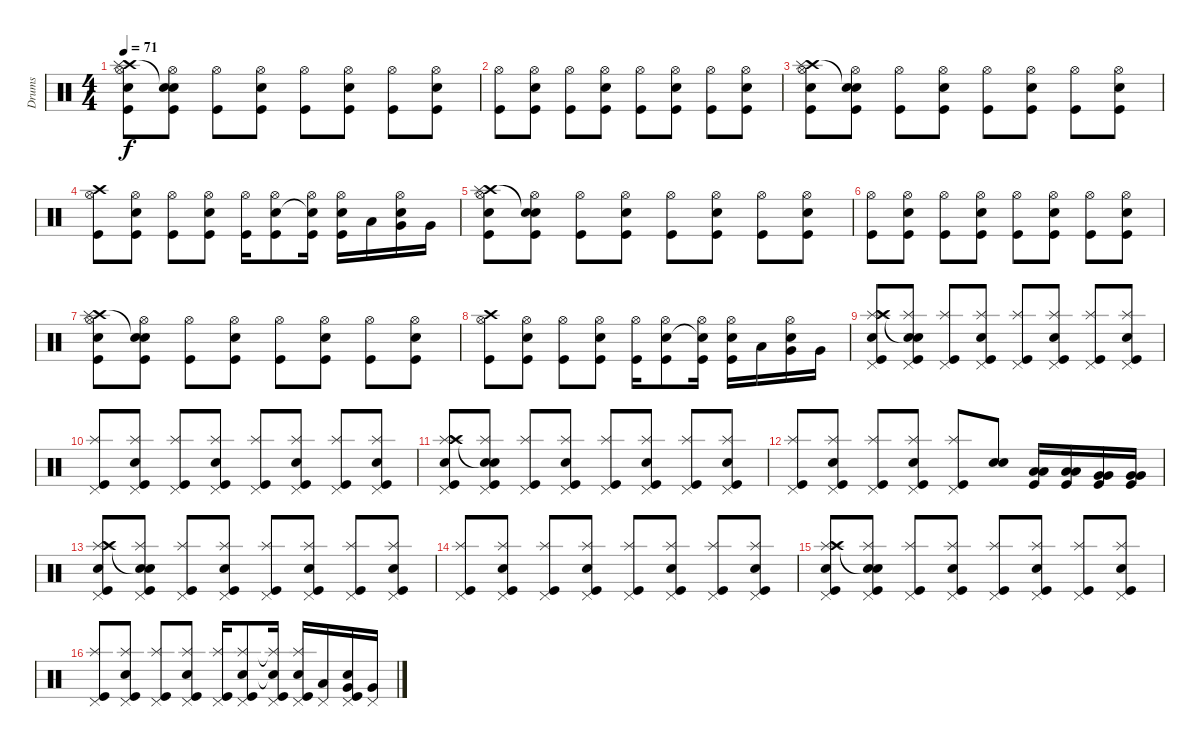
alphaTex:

\track ("Drums" "Drums") {instrument percussion}
\staff {score}
\articulation defaults
\ts (4 4)
\tempo 71
\clef neutral
\ks c
("Snare (hit) 2" "Hi-Hat (open)" "Kick (hit)" "Crash high (hit)" "Splash (hit)").8{dy f} ("Snare (hit) 2" "Hi-Hat (open)" "Kick (hit)" "Snare (hit)"{t}).8 ("Hi-Hat (open)" "Kick (hit)").8 ("Electric Snare (hit)" "Hi-Hat (open)" "Kick (hit)").8 ("Hi-Hat (open)" "Kick (hit)").8 ("Snare (hit) 2" "Hi-Hat (open)" "Kick (hit)").8 ("Hi-Hat (open)" "Kick (hit)").8 ("Electric Snare (hit)" "Hi-Hat (open)" "Kick (hit)").8 |
("Hi-Hat (open)" "Kick (hit)").8 ("Snare (hit) 2" "Hi-Hat (open)" "Kick (hit)").8 ("Hi-Hat (open)" "Kick (hit)").8 ("Electric Snare (hit)" "Hi-Hat (open)" "Kick (hit)").8 ("Hi-Hat (open)" "Kick (hit)").8 ("Snare (hit) 2" "Hi-Hat (open)" "Kick (hit)").8 ("Hi-Hat (open)" "Kick (hit)").8 ("Electric Snare (hit)" "Hi-Hat (open)" "Kick (hit)").8 |
("Snare (hit) 2" "Hi-Hat (open)" "Kick (hit)" "Crash high (hit)" "Splash (hit)").8 ("Snare (hit) 2" "Hi-Hat (open)" "Kick (hit)" "Snare (hit)"{t}).8 ("Hi-Hat (open)" "Kick (hit)").8 ("Electric Snare (hit)" "Hi-Hat (open)" "Kick (hit)").8 ("Hi-Hat (open)" "Kick (hit)").8 ("Snare (hit) 2" "Hi-Hat (open)" "Kick (hit)").8 ("Hi-Hat (open)" "Kick (hit)").8 ("Electric Snare (hit)" "Hi-Hat (open)" "Kick (hit)").8 |
("Hi-Hat (open)" "Kick (hit)" "Crash high (hit)").8 ("Snare (hit) 2" "Hi-Hat (open)" "Kick (hit)").8 ("Hi-Hat (open)" "Kick (hit)").8 ("Electric Snare (hit)" "Hi-Hat (open)" "Kick (hit)").8 ("Hi-Hat (open)" "Kick (hit)").16 ("Snare (hit) 2" "Hi-Hat (open)" "Kick (hit)").8 ("Snare (hit) 2"{t} "Hi-Hat (open)" "Kick (hit)").16 ("Electric Snare (hit)" "Hi-Hat (open)" "Kick (hit)").16 "Low Floor Tom (hit)".16 ("Electric Snare (hit)" "Hi-Hat (open)" "Very Low Tom (hit)").16 "Very Low Tom (hit)".16 |
("Snare (hit) 2" "Hi-Hat (open)" "Kick (hit)" "Crash high (hit)" "Splash (hit)").8 ("Snare (hit) 2" "Hi-Hat (open)" "Kick (hit)" "Snare (hit)"{t}).8 ("Hi-Hat (open)" "Kick (hit)").8 ("Electric Snare (hit)" "Hi-Hat (open)" "Kick (hit)").8 ("Hi-Hat (open)" "Kick (hit)").8 ("Snare (hit) 2" "Hi-Hat (open)" "Kick (hit)").8 ("Hi-Hat (open)" "Kick (hit)").8 ("Electric Snare (hit)" "Hi-Hat (open)" "Kick (hit)").8 |
("Hi-Hat (open)" "Kick (hit)").8 ("Snare (hit) 2" "Hi-Hat (open)" "Kick (hit)").8 ("Hi-Hat (open)" "Kick (hit)").8 ("Electric Snare (hit)" "Hi-Hat (open)" "Kick (hit)").8 ("Hi-Hat (open)" "Kick (hit)").8 ("Snare (hit) 2" "Hi-Hat (open)" "Kick (hit)").8 ("Hi-Hat (open)" "Kick (hit)").8 ("Electric Snare (hit)" "Hi-Hat (open)" "Kick (hit)").8 |
("Snare (hit) 2" "Hi-Hat (open)" "Kick (hit)" "Crash high (hit)" "Splash (hit)").8 ("Snare (hit) 2" "Hi-Hat (open)" "Kick (hit)" "Snare (hit)"{t}).8 ("Hi-Hat (open)" "Kick (hit)").8 ("Electric Snare (hit)" "Hi-Hat (open)" "Kick (hit)").8 ("Hi-Hat (open)" "Kick (hit)").8 ("Snare (hit) 2" "Hi-Hat (open)" "Kick (hit)").8 ("Hi-Hat (open)" "Kick (hit)").8 ("Electric Snare (hit)" "Hi-Hat (open)" "Kick (hit)").8 |
("Hi-Hat (open)" "Kick (hit)" "Crash high (hit)").8 ("Snare (hit) 2" "Hi-Hat (open)" "Kick (hit)").8 ("Hi-Hat (open)" "Kick (hit)").8 ("Electric Snare (hit)" "Hi-Hat (open)" "Kick (hit)").8 ("Hi-Hat (open)" "Kick (hit)").16 ("Snare (hit) 2" "Hi-Hat (open)" "Kick (hit)").8 ("Snare (hit) 2"{t} "Hi-Hat (open)" "Kick (hit)").16 ("Electric Snare (hit)" "Hi-Hat (open)" "Kick (hit)").16 "Low Floor Tom (hit)".16 ("Electric Snare (hit)" "Hi-Hat (open)" "Very Low Tom (hit)").16 "Very Low Tom (hit)".16 |
("Snare (hit) 2" "Splash (hit)" "Kick (hit)" "Pedal Hi-Hat (hit)" "Crash high (hit)" "Splash (hit)").8 ("Snare (hit) 2" "Splash (hit)" "Kick (hit)" "Pedal Hi-Hat (hit)" "Snare (hit)"{t}).8 ("Splash (hit)" "Kick (hit)" "Pedal Hi-Hat (hit)").8 ("Electric Snare (hit)" "Splash (hit)" "Kick (hit)" "Pedal Hi-Hat (hit)").8 ("Splash (hit)" "Kick (hit)" "Pedal Hi-Hat (hit)").8 ("Snare (hit) 2" "Splash (hit)" "Kick (hit)" "Pedal Hi-Hat (hit)").8 ("Splash (hit)" "Kick (hit)" "Pedal Hi-Hat (hit)").8 ("Electric Snare (hit)" "Splash (hit)" "Kick (hit)" "Pedal Hi-Hat (hit)").8 |
("Splash (hit)" "Kick (hit)" "Pedal Hi-Hat (hit)").8 ("Snare (hit) 2" "Splash (hit)" "Kick (hit)" "Pedal Hi-Hat (hit)").8 ("Splash (hit)" "Kick (hit)" "Pedal Hi-Hat (hit)").8 ("Electric Snare (hit)" "Splash (hit)" "Kick (hit)" "Pedal Hi-Hat (hit)").8 ("Splash (hit)" "Kick (hit)" "Pedal Hi-Hat (hit)").8 ("Snare (hit) 2" "Splash (hit)" "Kick (hit)" "Pedal Hi-Hat (hit)").8 ("Splash (hit)" "Kick (hit)" "Pedal Hi-Hat (hit)").8 ("Electric Snare (hit)" "Splash (hit)" "Kick (hit)" "Pedal Hi-Hat (hit)").8 |
("Snare (hit) 2" "Splash (hit)" "Kick (hit)" "Pedal Hi-Hat (hit)" "Crash high (hit)" "Splash (hit)").8 ("Snare (hit) 2" "Splash (hit)" "Kick (hit)" "Pedal Hi-Hat (hit)" "Snare (hit)"{t}).8 ("Splash (hit)" "Kick (hit)" "Pedal Hi-Hat (hit)").8 ("Electric Snare (hit)" "Splash (hit)" "Kick (hit)" "Pedal Hi-Hat (hit)").8 ("Splash (hit)" "Kick (hit)" "Pedal Hi-Hat (hit)").8 ("Snare (hit) 2" "Splash (hit)" "Kick (hit)" "Pedal Hi-Hat (hit)").8 ("Splash (hit)" "Kick (hit)" "Pedal Hi-Hat (hit)").8 ("Electric Snare (hit)" "Splash (hit)" "Kick (hit)" "Pedal Hi-Hat (hit)").8 |
("Splash (hit)" "Kick (hit)" "Pedal Hi-Hat (hit)").8 ("Snare (hit) 2" "Splash (hit)" "Kick (hit)" "Pedal Hi-Hat (hit)").8 ("Splash (hit)" "Kick (hit)" "Pedal Hi-Hat (hit)").8 ("Electric Snare (hit)" "Splash (hit)" "Kick (hit)" "Pedal Hi-Hat (hit)").8 ("Splash (hit)" "Kick (hit)" "Pedal Hi-Hat (hit)").8 ("Snare (hit) 2" "Snare (hit) 2").8 ("Low Floor Tom (hit)" "Low Floor Tom (hit)" "Kick (hit)").16 ("Low Floor Tom (hit)" "Low Floor Tom (hit)" "Kick (hit)").16 ("Very Low Tom (hit)" "Very Low Tom (hit)" "Kick (hit)").16 ("Very Low Tom (hit)" "Very Low Tom (hit)" "Kick (hit)").16 |
("Snare (hit) 2" "Splash (hit)" "Kick (hit)" "Pedal Hi-Hat (hit)" "Crash high (hit)" "Splash (hit)").8 ("Snare (hit) 2" "Splash (hit)" "Kick (hit)" "Pedal Hi-Hat (hit)" "Snare (hit)"{t}).8 ("Splash (hit)" "Kick (hit)" "Pedal Hi-Hat (hit)").8 ("Electric Snare (hit)" "Splash (hit)" "Kick (hit)" "Pedal Hi-Hat (hit)").8 ("Splash (hit)" "Kick (hit)" "Pedal Hi-Hat (hit)").8 ("Snare (hit) 2" "Splash (hit)" "Kick (hit)" "Pedal Hi-Hat (hit)").8 ("Splash (hit)" "Kick (hit)" "Pedal Hi-Hat (hit)").8 ("Electric Snare (hit)" "Splash (hit)" "Kick (hit)" "Pedal Hi-Hat (hit)").8 |
("Splash (hit)" "Kick (hit)" "Pedal Hi-Hat (hit)").8 ("Snare (hit) 2" "Splash (hit)" "Kick (hit)" "Pedal Hi-Hat (hit)").8 ("Splash (hit)" "Kick (hit)" "Pedal Hi-Hat (hit)").8 ("Electric Snare (hit)" "Splash (hit)" "Kick (hit)" "Pedal Hi-Hat (hit)").8 ("Splash (hit)" "Kick (hit)" "Pedal Hi-Hat (hit)").8 ("Snare (hit) 2" "Splash (hit)" "Kick (hit)" "Pedal Hi-Hat (hit)").8 ("Splash (hit)" "Kick (hit)" "Pedal Hi-Hat (hit)").8 ("Electric Snare (hit)" "Splash (hit)" "Kick (hit)" "Pedal Hi-Hat (hit)").8 |
("Snare (hit) 2" "Splash (hit)" "Kick (hit)" "Pedal Hi-Hat (hit)" "Crash high (hit)" "Splash (hit)").8 ("Snare (hit) 2" "Splash (hit)" "Kick (hit)" "Pedal Hi-Hat (hit)" "Snare (hit)"{t}).8 ("Splash (hit)" "Kick (hit)" "Pedal Hi-Hat (hit)").8 ("Electric Snare (hit)" "Splash (hit)" "Kick (hit)" "Pedal Hi-Hat (hit)").8 ("Splash (hit)" "Kick (hit)" "Pedal Hi-Hat (hit)").8 ("Snare (hit) 2" "Splash (hit)" "Kick (hit)" "Pedal Hi-Hat (hit)").8 ("Splash (hit)" "Kick (hit)" "Pedal Hi-Hat (hit)").8 ("Electric Snare (hit)" "Splash (hit)" "Kick (hit)" "Pedal Hi-Hat (hit)").8 |
("Splash (hit)" "Kick (hit)" "Pedal Hi-Hat (hit)").8 ("Snare (hit) 2" "Splash (hit)" "Kick (hit)" "Pedal Hi-Hat (hit)").8 ("Splash (hit)" "Kick (hit)" "Pedal Hi-Hat (hit)").8 ("Electric Snare (hit)" "Splash (hit)" "Kick (hit)" "Pedal Hi-Hat (hit)").8 ("Splash (hit)" "Kick (hit)" "Pedal Hi-Hat (hit)").16 ("Snare (hit) 2" "Splash (hit)" "Kick (hit)" "Pedal Hi-Hat (hit)").8 ("Snare (hit) 2"{t} "Splash (hit)"{t} "Kick (hit)" "Pedal Hi-Hat (hit)").16 ("Electric Snare (hit)" "Splash (hit)" "Kick (hit)" "Pedal Hi-Hat (hit)").16 ("Low Floor Tom (hit)" "Pedal Hi-Hat (hit)").16 ("Electric Snare (hit)" "Kick (hit)" "Very Low Tom (hit)" "Pedal Hi-Hat (hit)").16 ("Very Low Tom (hit)" "Pedal Hi-Hat (hit)").16
